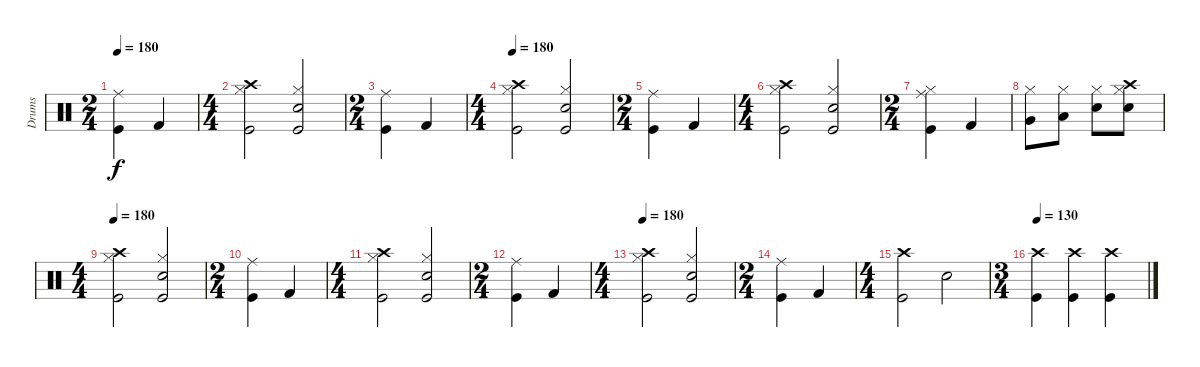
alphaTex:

\track ("Drums" "Drums") {instrument percussion}
\staff {score}
\articulation defaults
\ts (2 4)
\tempo 180
\clef neutral
\ks c
("Ride (middle)" "Kick (hit)").4{dy f} "Kick (hit) 2".4 |
\ts (4 4)
("Crash high (hit)" "Kick (hit)" "Hi-Hat (closed)").2 ("Snare (hit) 2" "Kick (hit)" "Hi-Hat (closed)").2 |
\ts (2 4)
("Ride (middle)" "Kick (hit)").4 "Kick (hit) 2".4 |
\ts (4 4)
\tempo 180
("Crash high (hit)" "Kick (hit)" "Hi-Hat (closed)").2 ("Snare (hit) 2" "Kick (hit)" "Hi-Hat (closed)").2 |
\ts (2 4)
("Ride (middle)" "Kick (hit)").4 "Kick (hit) 2".4 |
\ts (4 4)
("Crash high (hit)" "Kick (hit)" "Hi-Hat (closed)").2 ("Snare (hit) 2" "Kick (hit)" "Hi-Hat (closed)").2 |
\ts (2 4)
("Ride (middle)" "Kick (hit)" "Hi-Hat (closed)").4 "Kick (hit) 2".4 |
("Very Low Tom (hit)" "Hi-Hat (closed)").8 ("Low Tom (hit)" "Hi-Hat (closed)").8 ("Snare (hit) 2" "Hi-Hat (closed)").8 ("Crash high (hit)" "Snare (hit) 2" "Hi-Hat (closed)").8 |
\ts (4 4)
\tempo 180
("Crash high (hit)" "Kick (hit)" "Hi-Hat (closed)").2 ("Snare (hit) 2" "Kick (hit)" "Hi-Hat (closed)").2 |
\ts (2 4)
("Ride (middle)" "Kick (hit)").4 "Kick (hit) 2".4 |
\ts (4 4)
("Crash high (hit)" "Kick (hit)" "Hi-Hat (closed)").2 ("Snare (hit) 2" "Kick (hit)" "Hi-Hat (closed)").2 |
\ts (2 4)
("Ride (middle)" "Kick (hit)").4 "Kick (hit) 2".4 |
\ts (4 4)
\tempo 180
("Crash high (hit)" "Kick (hit)" "Hi-Hat (closed)").2 ("Snare (hit) 2" "Kick (hit)" "Hi-Hat (closed)").2 |
\ts (2 4)
("Ride (middle)" "Kick (hit)").4 "Kick (hit) 2".4 |
\ts (4 4)
("Crash high (hit)" "Kick (hit)").2 "Snare (hit) 2".2 |
\ts (3 4)
\tempo 130
("Crash high (hit)" "Kick (hit)").4 ("Crash high (hit)" "Kick (hit)").4 ("Crash high (hit)" "Kick (hit)").4
